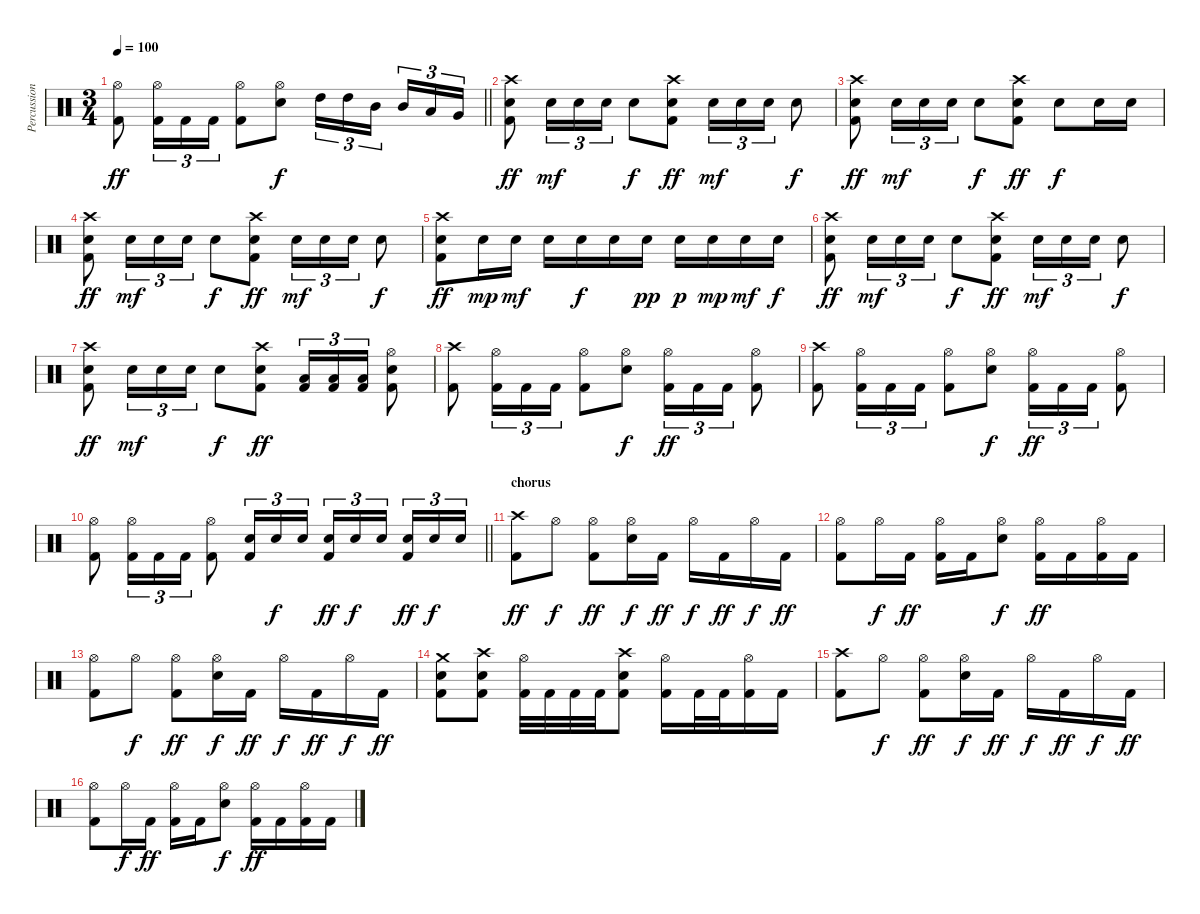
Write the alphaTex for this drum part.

\track ("Percussion" "Percussion") {instrument percussion}
\staff {score}
\articulation defaults
\ts (3 4)
\tempo 100
\clef neutral
\barLineRight lightlight
\ks c
("Hi-Hat (open)" "Kick (hit) 2").8{dy ff} ("Hi-Hat (open)" "Kick (hit) 2").16{tu (3 2)} "Kick (hit) 2".16{tu (3 2)} "Kick (hit) 2".16{tu (3 2)} ("Hi-Hat (open)" "Kick (hit) 2").8 ("Hi-Hat (open)" "Snare (hit) 2").8{dy f} "High Tom (hit)".16{tu (3 2)} "High Tom (hit)".16{tu (3 2)} "Mid Tom (hit)".16{tu (3 2) beam splitsecondary} "Mid Tom (hit)".16{tu (3 2)} "Low Tom (hit)".16{tu (3 2)} "Very Low Tom (hit)".16{tu (3 2)} |
\section ("" "")
("Crash high (hit)" "Snare (hit) 2" "Kick (hit) 2").8{dy ff} "Snare (hit) 2".16{tu (3 2) dy mf} "Snare (hit) 2".16{tu (3 2)} "Snare (hit) 2".16{tu (3 2)} "Snare (hit) 2".8{dy f} ("Crash high (hit)" "Snare (hit) 2" "Kick (hit) 2").8{dy ff} "Snare (hit) 2".16{tu (3 2) dy mf} "Snare (hit) 2".16{tu (3 2)} "Snare (hit) 2".16{tu (3 2)} "Snare (hit) 2".8{dy f} |
("Crash high (hit)" "Snare (hit) 2" "Kick (hit) 2").8{dy ff} "Snare (hit) 2".16{tu (3 2) dy mf} "Snare (hit) 2".16{tu (3 2)} "Snare (hit) 2".16{tu (3 2)} "Snare (hit) 2".8{dy f} ("Crash high (hit)" "Snare (hit) 2" "Kick (hit) 2").8{dy ff} "Snare (hit) 2".8{dy f} "Snare (hit) 2".16 "Snare (hit) 2".16 |
("Crash high (hit)" "Snare (hit) 2" "Kick (hit) 2").8{dy ff} "Snare (hit) 2".16{tu (3 2) dy mf} "Snare (hit) 2".16{tu (3 2)} "Snare (hit) 2".16{tu (3 2)} "Snare (hit) 2".8{dy f} ("Crash high (hit)" "Snare (hit) 2" "Kick (hit) 2").8{dy ff} "Snare (hit) 2".16{tu (3 2) dy mf} "Snare (hit) 2".16{tu (3 2)} "Snare (hit) 2".16{tu (3 2)} "Snare (hit) 2".8{dy f} |
("Crash high (hit)" "Snare (hit) 2" "Kick (hit) 2").8{dy ff} "Snare (hit) 2".16{dy mp} "Snare (hit) 2".16{dy mf} "Snare (hit) 2".16 "Snare (hit) 2".16{dy f} "Snare (hit) 2".16 "Snare (hit) 2".16{dy pp} "Snare (hit) 2".16{dy p} "Snare (hit) 2".16{dy mp} "Snare (hit) 2".16{dy mf} "Snare (hit) 2".16{dy f} |
("Crash high (hit)" "Snare (hit) 2" "Kick (hit) 2").8{dy ff} "Snare (hit) 2".16{tu (3 2) dy mf} "Snare (hit) 2".16{tu (3 2)} "Snare (hit) 2".16{tu (3 2)} "Snare (hit) 2".8{dy f} ("Crash high (hit)" "Snare (hit) 2" "Kick (hit) 2").8{dy ff} "Snare (hit) 2".16{tu (3 2) dy mf} "Snare (hit) 2".16{tu (3 2)} "Snare (hit) 2".16{tu (3 2)} "Snare (hit) 2".8{dy f} |
("Crash high (hit)" "Snare (hit) 2" "Kick (hit) 2").8{dy ff} "Snare (hit) 2".16{tu (3 2) dy mf} "Snare (hit) 2".16{tu (3 2)} "Snare (hit) 2".16{tu (3 2)} "Snare (hit) 2".8{dy f} ("Crash high (hit)" "Snare (hit) 2" "Kick (hit) 2").8{dy ff} ("Low Tom (hit)" "Kick (hit) 2").16{tu (3 2)} ("Low Tom (hit)" "Kick (hit) 2").16{tu (3 2)} ("Low Tom (hit)" "Kick (hit) 2").16{tu (3 2)} ("Hi-Hat (open)" "Snare (hit) 2" "Kick (hit) 2").8 |
("Crash high (hit)" "Kick (hit) 2").8 ("Hi-Hat (open)" "Kick (hit) 2").16{tu (3 2)} "Kick (hit) 2".16{tu (3 2)} "Kick (hit) 2".16{tu (3 2)} ("Hi-Hat (open)" "Kick (hit) 2").8 ("Hi-Hat (open)" "Snare (hit) 2").8{dy f} ("Hi-Hat (open)" "Kick (hit) 2").16{tu (3 2) dy ff} "Kick (hit) 2".16{tu (3 2)} "Kick (hit) 2".16{tu (3 2)} ("Hi-Hat (open)" "Kick (hit) 2").8 |
("Crash high (hit)" "Kick (hit) 2").8 ("Hi-Hat (open)" "Kick (hit) 2").16{tu (3 2)} "Kick (hit) 2".16{tu (3 2)} "Kick (hit) 2".16{tu (3 2)} ("Hi-Hat (open)" "Kick (hit) 2").8 ("Hi-Hat (open)" "Snare (hit) 2").8{dy f} ("Hi-Hat (open)" "Kick (hit) 2").16{tu (3 2) dy ff} "Kick (hit) 2".16{tu (3 2)} "Kick (hit) 2".16{tu (3 2)} ("Hi-Hat (open)" "Kick (hit) 2").8 |
\barLineRight lightlight
("Hi-Hat (open)" "Kick (hit) 2").8 ("Hi-Hat (open)" "Kick (hit) 2").16{tu (3 2)} "Kick (hit) 2".16{tu (3 2)} "Kick (hit) 2".16{tu (3 2)} ("Hi-Hat (open)" "Kick (hit) 2").8 ("Snare (hit) 2" "Kick (hit) 2").16{tu (3 2)} "Snare (hit) 2".16{tu (3 2) dy f} "Snare (hit) 2".16{tu (3 2)} ("Snare (hit) 2" "Kick (hit) 2").16{tu (3 2) dy ff} "Snare (hit) 2".16{tu (3 2) dy f} "Snare (hit) 2".16{tu (3 2) beam splitsecondary} ("Snare (hit) 2" "Kick (hit) 2").16{tu (3 2) dy ff} "Snare (hit) 2".16{tu (3 2) dy f} "Snare (hit) 2".16{tu (3 2)} |
\section ("" "chorus")
("Crash high (hit)" "Kick (hit) 2").8{dy ff} "Hi-Hat (open)".8{dy f} ("Hi-Hat (open)" "Kick (hit) 2").8{dy ff} ("Hi-Hat (open)" "Snare (hit) 2").16{dy f} "Kick (hit) 2".16{dy ff} "Hi-Hat (open)".16{dy f} "Kick (hit) 2".16{dy ff} "Hi-Hat (open)".16{dy f} "Kick (hit) 2".16{dy ff} |
("Hi-Hat (open)" "Kick (hit) 2").8 "Hi-Hat (open)".16{dy f} "Kick (hit) 2".16{dy ff} ("Hi-Hat (open)" "Kick (hit) 2").16 "Kick (hit) 2".16 ("Hi-Hat (open)" "Snare (hit) 2").8{dy f} ("Hi-Hat (open)" "Kick (hit) 2").16{dy ff} "Kick (hit) 2".16 ("Hi-Hat (open)" "Kick (hit) 2").16 "Kick (hit) 2".16 |
("Hi-Hat (open)" "Kick (hit) 2").8 "Hi-Hat (open)".8{dy f} ("Hi-Hat (open)" "Kick (hit) 2").8{dy ff} ("Hi-Hat (open)" "Snare (hit) 2").16{dy f} "Kick (hit) 2".16{dy ff} "Hi-Hat (open)".16{dy f} "Kick (hit) 2".16{dy ff} "Hi-Hat (open)".16{dy f} "Kick (hit) 2".16{dy ff} |
("Crash medium (hit)" "Snare (hit) 2" "Kick (hit) 2").8 ("Crash high (hit)" "Snare (hit) 2" "Kick (hit) 2").8 ("Hi-Hat (open)" "Kick (hit) 2").32 "Kick (hit) 2".32 "Kick (hit) 2".32 "Kick (hit) 2".32 ("Crash high (hit)" "Snare (hit) 2" "Kick (hit) 2").8 ("Hi-Hat (open)" "Kick (hit) 2").16 "Kick (hit) 2".32 "Kick (hit) 2".32 ("Hi-Hat (open)" "Kick (hit) 2").16 "Kick (hit) 2".16 |
("Crash high (hit)" "Kick (hit) 2").8 "Hi-Hat (open)".8{dy f} ("Hi-Hat (open)" "Kick (hit) 2").8{dy ff} ("Hi-Hat (open)" "Snare (hit) 2").16{dy f} "Kick (hit) 2".16{dy ff} "Hi-Hat (open)".16{dy f} "Kick (hit) 2".16{dy ff} "Hi-Hat (open)".16{dy f} "Kick (hit) 2".16{dy ff} |
("Hi-Hat (open)" "Kick (hit) 2").8 "Hi-Hat (open)".16{dy f} "Kick (hit) 2".16{dy ff} ("Hi-Hat (open)" "Kick (hit) 2").16 "Kick (hit) 2".16 ("Hi-Hat (open)" "Snare (hit) 2").8{dy f} ("Hi-Hat (open)" "Kick (hit) 2").16{dy ff} "Kick (hit) 2".16 ("Hi-Hat (open)" "Kick (hit) 2").16 "Kick (hit) 2".16
